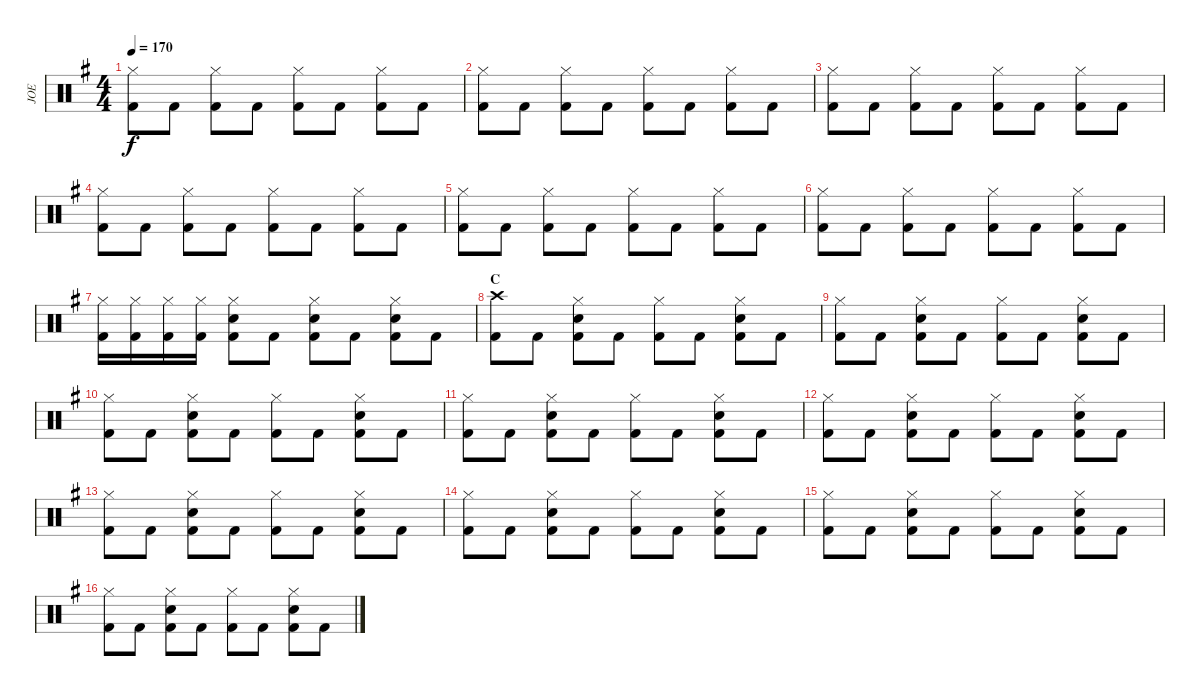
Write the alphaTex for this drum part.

\track ("JOE" "JOE") {instrument percussion}
\staff {score}
\articulation defaults
\ts (4 4)
\tempo 170
\clef neutral
\ks eminor
("Hi-Hat (closed)" "Kick (hit) 2").8{dy f} "Kick (hit) 2".8 ("Hi-Hat (closed)" "Kick (hit) 2").8 "Kick (hit) 2".8 ("Hi-Hat (closed)" "Kick (hit) 2").8 "Kick (hit) 2".8 ("Hi-Hat (closed)" "Kick (hit) 2").8 "Kick (hit) 2".8 |
("Hi-Hat (closed)" "Kick (hit) 2").8 "Kick (hit) 2".8 ("Hi-Hat (closed)" "Kick (hit) 2").8 "Kick (hit) 2".8 ("Hi-Hat (closed)" "Kick (hit) 2").8 "Kick (hit) 2".8 ("Hi-Hat (closed)" "Kick (hit) 2").8 "Kick (hit) 2".8 |
("Hi-Hat (closed)" "Kick (hit) 2").8 "Kick (hit) 2".8 ("Hi-Hat (closed)" "Kick (hit) 2").8 "Kick (hit) 2".8 ("Hi-Hat (closed)" "Kick (hit) 2").8 "Kick (hit) 2".8 ("Hi-Hat (closed)" "Kick (hit) 2").8 "Kick (hit) 2".8 |
("Hi-Hat (closed)" "Kick (hit) 2").8 "Kick (hit) 2".8 ("Hi-Hat (closed)" "Kick (hit) 2").8 "Kick (hit) 2".8 ("Hi-Hat (closed)" "Kick (hit) 2").8 "Kick (hit) 2".8 ("Hi-Hat (closed)" "Kick (hit) 2").8 "Kick (hit) 2".8 |
("Hi-Hat (closed)" "Kick (hit) 2").8 "Kick (hit) 2".8 ("Hi-Hat (closed)" "Kick (hit) 2").8 "Kick (hit) 2".8 ("Hi-Hat (closed)" "Kick (hit) 2").8 "Kick (hit) 2".8 ("Hi-Hat (closed)" "Kick (hit) 2").8 "Kick (hit) 2".8 |
("Hi-Hat (closed)" "Kick (hit) 2").8 "Kick (hit) 2".8 ("Hi-Hat (closed)" "Kick (hit) 2").8 "Kick (hit) 2".8 ("Hi-Hat (closed)" "Kick (hit) 2").8 "Kick (hit) 2".8 ("Hi-Hat (closed)" "Kick (hit) 2").8 "Kick (hit) 2".8 |
("Hi-Hat (closed)" "Kick (hit) 2").16 ("Hi-Hat (closed)" "Kick (hit) 2").16 ("Hi-Hat (closed)" "Kick (hit) 2").16 ("Hi-Hat (closed)" "Kick (hit) 2").16 ("Hi-Hat (closed)" "Snare (hit) 2" "Kick (hit) 2").8 "Kick (hit) 2".8 ("Hi-Hat (closed)" "Snare (hit) 2" "Kick (hit) 2").8 "Kick (hit) 2".8 ("Hi-Hat (closed)" "Snare (hit) 2" "Kick (hit) 2").8 "Kick (hit) 2".8 |
\section ("" "C")
("Crash high (hit)" "Kick (hit) 2").8 "Kick (hit) 2".8 ("Hi-Hat (closed)" "Snare (hit) 2" "Kick (hit) 2").8 "Kick (hit) 2".8 ("Hi-Hat (closed)" "Kick (hit) 2").8 "Kick (hit) 2".8 ("Hi-Hat (closed)" "Snare (hit) 2" "Kick (hit) 2").8 "Kick (hit) 2".8 |
("Hi-Hat (closed)" "Kick (hit) 2").8 "Kick (hit) 2".8 ("Hi-Hat (closed)" "Snare (hit) 2" "Kick (hit) 2").8 "Kick (hit) 2".8 ("Hi-Hat (closed)" "Kick (hit) 2").8 "Kick (hit) 2".8 ("Hi-Hat (closed)" "Snare (hit) 2" "Kick (hit) 2").8 "Kick (hit) 2".8 |
("Hi-Hat (closed)" "Kick (hit) 2").8 "Kick (hit) 2".8 ("Hi-Hat (closed)" "Snare (hit) 2" "Kick (hit) 2").8 "Kick (hit) 2".8 ("Hi-Hat (closed)" "Kick (hit) 2").8 "Kick (hit) 2".8 ("Hi-Hat (closed)" "Snare (hit) 2" "Kick (hit) 2").8 "Kick (hit) 2".8 |
("Hi-Hat (closed)" "Kick (hit) 2").8 "Kick (hit) 2".8 ("Hi-Hat (closed)" "Snare (hit) 2" "Kick (hit) 2").8 "Kick (hit) 2".8 ("Hi-Hat (closed)" "Kick (hit) 2").8 "Kick (hit) 2".8 ("Hi-Hat (closed)" "Snare (hit) 2" "Kick (hit) 2").8 "Kick (hit) 2".8 |
("Hi-Hat (closed)" "Kick (hit) 2").8 "Kick (hit) 2".8 ("Hi-Hat (closed)" "Snare (hit) 2" "Kick (hit) 2").8 "Kick (hit) 2".8 ("Hi-Hat (closed)" "Kick (hit) 2").8 "Kick (hit) 2".8 ("Hi-Hat (closed)" "Snare (hit) 2" "Kick (hit) 2").8 "Kick (hit) 2".8 |
("Hi-Hat (closed)" "Kick (hit) 2").8 "Kick (hit) 2".8 ("Hi-Hat (closed)" "Snare (hit) 2" "Kick (hit) 2").8 "Kick (hit) 2".8 ("Hi-Hat (closed)" "Kick (hit) 2").8 "Kick (hit) 2".8 ("Hi-Hat (closed)" "Snare (hit) 2" "Kick (hit) 2").8 "Kick (hit) 2".8 |
("Hi-Hat (closed)" "Kick (hit) 2").8 "Kick (hit) 2".8 ("Hi-Hat (closed)" "Snare (hit) 2" "Kick (hit) 2").8 "Kick (hit) 2".8 ("Hi-Hat (closed)" "Kick (hit) 2").8 "Kick (hit) 2".8 ("Hi-Hat (closed)" "Snare (hit) 2" "Kick (hit) 2").8 "Kick (hit) 2".8 |
("Hi-Hat (closed)" "Kick (hit) 2").8 "Kick (hit) 2".8 ("Hi-Hat (closed)" "Snare (hit) 2" "Kick (hit) 2").8 "Kick (hit) 2".8 ("Hi-Hat (closed)" "Kick (hit) 2").8 "Kick (hit) 2".8 ("Hi-Hat (closed)" "Snare (hit) 2" "Kick (hit) 2").8 "Kick (hit) 2".8 |
("Hi-Hat (closed)" "Kick (hit) 2").8 "Kick (hit) 2".8 ("Hi-Hat (closed)" "Snare (hit) 2" "Kick (hit) 2").8 "Kick (hit) 2".8 ("Hi-Hat (closed)" "Kick (hit) 2").8 "Kick (hit) 2".8 ("Hi-Hat (closed)" "Snare (hit) 2" "Kick (hit) 2").8 "Kick (hit) 2".8
